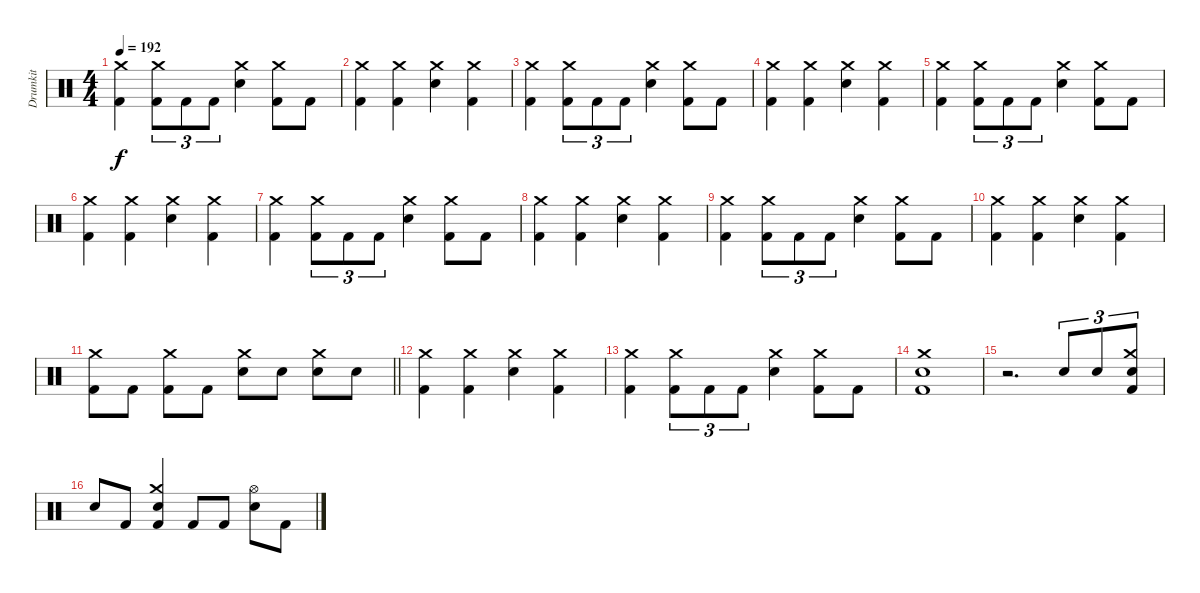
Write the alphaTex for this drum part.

\track ("Drumkit" "Drumkit") {instrument percussion}
\staff {score}
\articulation defaults
\ts (4 4)
\tempo 192
\clef neutral
\ks c
("Kick (hit) 2" "Crash medium (hit)").4{dy f} ("Crash medium (hit)" "Kick (hit) 2").8{tu (3 2)} "Kick (hit) 2".8{tu (3 2)} "Kick (hit) 2".8{tu (3 2)} ("Snare (hit) 2" "Crash medium (hit)").4 ("Crash medium (hit)" "Kick (hit) 2").8 "Kick (hit) 2".8 |
("Kick (hit) 2" "Crash medium (hit)").4 ("Kick (hit) 2" "Crash medium (hit)").4 ("Snare (hit) 2" "Crash medium (hit)").4 ("Kick (hit) 2" "Crash medium (hit)").4 |
("Kick (hit) 2" "Crash medium (hit)").4 ("Crash medium (hit)" "Kick (hit) 2").8{tu (3 2)} "Kick (hit) 2".8{tu (3 2)} "Kick (hit) 2".8{tu (3 2)} ("Snare (hit) 2" "Crash medium (hit)").4 ("Crash medium (hit)" "Kick (hit) 2").8 "Kick (hit) 2".8 |
("Kick (hit) 2" "Crash medium (hit)").4 ("Kick (hit) 2" "Crash medium (hit)").4 ("Snare (hit) 2" "Crash medium (hit)").4 ("Kick (hit) 2" "Crash medium (hit)").4 |
("Kick (hit) 2" "Crash medium (hit)").4 ("Crash medium (hit)" "Kick (hit) 2").8{tu (3 2)} "Kick (hit) 2".8{tu (3 2)} "Kick (hit) 2".8{tu (3 2)} ("Snare (hit) 2" "Crash medium (hit)").4 ("Crash medium (hit)" "Kick (hit) 2").8 "Kick (hit) 2".8 |
("Kick (hit) 2" "Crash medium (hit)").4 ("Kick (hit) 2" "Crash medium (hit)").4 ("Snare (hit) 2" "Crash medium (hit)").4 ("Kick (hit) 2" "Crash medium (hit)").4 |
("Kick (hit) 2" "Crash medium (hit)").4 ("Crash medium (hit)" "Kick (hit) 2").8{tu (3 2)} "Kick (hit) 2".8{tu (3 2)} "Kick (hit) 2".8{tu (3 2)} ("Snare (hit) 2" "Crash medium (hit)").4 ("Crash medium (hit)" "Kick (hit) 2").8 "Kick (hit) 2".8 |
("Kick (hit) 2" "Crash medium (hit)").4 ("Kick (hit) 2" "Crash medium (hit)").4 ("Snare (hit) 2" "Crash medium (hit)").4 ("Kick (hit) 2" "Crash medium (hit)").4 |
("Kick (hit) 2" "Crash medium (hit)").4 ("Crash medium (hit)" "Kick (hit) 2").8{tu (3 2)} "Kick (hit) 2".8{tu (3 2)} "Kick (hit) 2".8{tu (3 2)} ("Snare (hit) 2" "Crash medium (hit)").4 ("Crash medium (hit)" "Kick (hit) 2").8 "Kick (hit) 2".8 |
("Kick (hit) 2" "Crash medium (hit)").4 ("Kick (hit) 2" "Crash medium (hit)").4 ("Snare (hit) 2" "Crash medium (hit)").4 ("Kick (hit) 2" "Crash medium (hit)").4 |
\barLineRight lightlight
("Crash medium (hit)" "Kick (hit) 2").8 "Kick (hit) 2".8 ("Kick (hit) 2" "Crash medium (hit)").8 "Kick (hit) 2".8 ("Crash medium (hit)" "Snare (hit) 2").8 "Snare (hit) 2".8 ("Snare (hit) 2" "Crash medium (hit)").8 "Snare (hit) 2".8 |
("Kick (hit) 2" "Crash medium (hit)").4 ("Kick (hit) 2" "Crash medium (hit)").4 ("Snare (hit) 2" "Crash medium (hit)").4 ("Kick (hit) 2" "Crash medium (hit)").4 |
("Kick (hit) 2" "Crash medium (hit)").4 ("Crash medium (hit)" "Kick (hit) 2").8{tu (3 2)} "Kick (hit) 2".8{tu (3 2)} "Kick (hit) 2".8{tu (3 2)} ("Snare (hit) 2" "Crash medium (hit)").4 ("Crash medium (hit)" "Kick (hit) 2").8 "Kick (hit) 2".8 |
("Crash medium (hit)" "Kick (hit) 2" "Snare (hit) 2").1 |
r.2{d} "Snare (hit) 2".8{tu (3 2)} "Snare (hit) 2".8{tu (3 2)} ("Snare (hit) 2" "Crash medium (hit)" "Kick (hit) 2").8{tu (3 2)} |
"Snare (hit) 2".8 "Kick (hit) 2".8 ("Kick (hit) 2" "Crash medium (hit)" "Snare (hit) 2").4 "Kick (hit) 2".8 "Kick (hit) 2".8 ("Snare (hit) 2" "Hi-Hat (open)").8 "Kick (hit) 2".8
